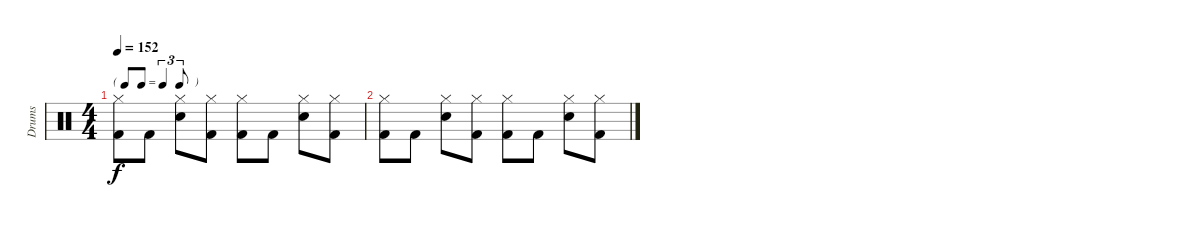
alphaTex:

\track ("Drums" "Drums") {instrument percussion}
\staff {score}
\articulation defaults
\ts (4 4)
\tf triplet8th
\tempo 152
\clef neutral
\ks c
("Hi-Hat (closed)" "Kick (hit) 2").8{dy f} "Kick (hit) 2".8 ("Hi-Hat (closed)" "Snare (hit) 2").8 ("Hi-Hat (closed)" "Kick (hit) 2").8 ("Hi-Hat (closed)" "Kick (hit) 2").8 "Kick (hit) 2".8 ("Hi-Hat (closed)" "Snare (hit) 2").8 ("Hi-Hat (closed)" "Kick (hit) 2").8 |
("Hi-Hat (closed)" "Kick (hit) 2").8 "Kick (hit) 2".8 ("Hi-Hat (closed)" "Snare (hit) 2").8 ("Hi-Hat (closed)" "Kick (hit) 2").8 ("Hi-Hat (closed)" "Kick (hit) 2").8 "Kick (hit) 2".8 ("Hi-Hat (closed)" "Snare (hit) 2").8 ("Hi-Hat (closed)" "Kick (hit) 2").8
